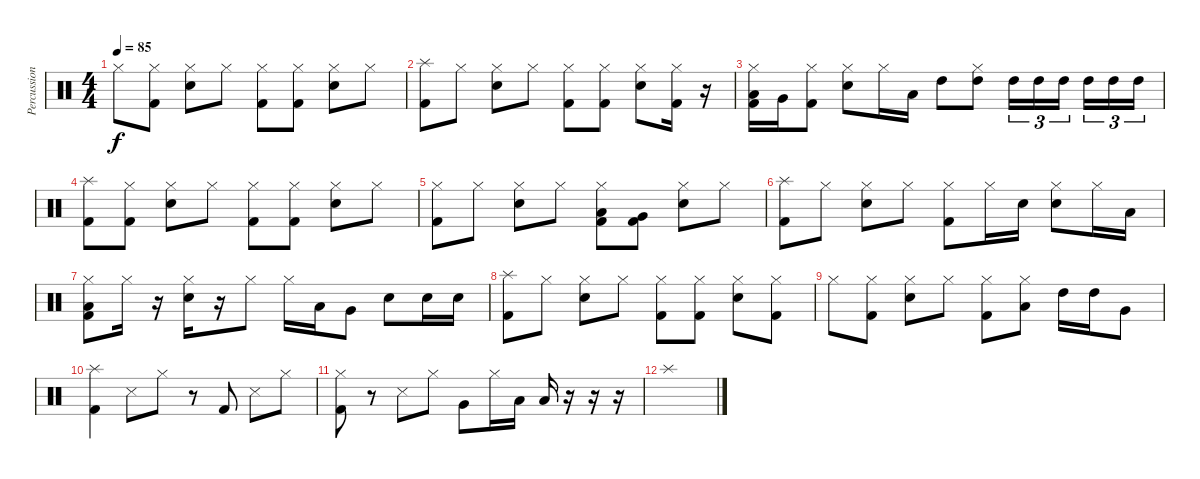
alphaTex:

\track ("Percussion" "Percussion") {instrument percussion}
\staff {score}
\articulation defaults
\ts (4 4)
\tempo 85
\clef neutral
\ks c "Hi-Hat (closed)".8{dy f}
("Hi-Hat (closed)" "Kick (hit) 2").8 ("Hi-Hat (closed)" "Electric Snare (hit)").8 "Hi-Hat (closed)".8 ("Hi-Hat (closed)" "Kick (hit) 2").8 ("Hi-Hat (closed)" "Kick (hit) 2").8 ("Hi-Hat (closed)" "Electric Snare (hit)").8 "Hi-Hat (closed)".8 |
("Splash (hit)" "Kick (hit) 2").8 "Hi-Hat (closed)".8 ("Hi-Hat (closed)" "Electric Snare (hit)").8 "Hi-Hat (closed)".8 ("Hi-Hat (closed)" "Kick (hit) 2").8 ("Hi-Hat (closed)" "Kick (hit) 2").8 ("Hi-Hat (closed)" "Electric Snare (hit)").8 ("Hi-Hat (closed)" "Kick (hit) 2").16 r.16 |
("Hi-Hat (closed)" "Low Tom (hit)" "Kick (hit) 2").16 "Very Low Tom (hit)".16 ("Hi-Hat (closed)" "Kick (hit) 2").8 ("Hi-Hat (closed)" "Electric Snare (hit)").8 "Hi-Hat (closed)".16 "Low Tom (hit)".16 "High Tom (hit)".8 ("Hi-Hat (closed)" "High Tom (hit)").8 "High Tom (hit)".16{tu (3 2)} "High Tom (hit)".16{tu (3 2)} "High Tom (hit)".16{tu (3 2) beam splitsecondary} "High Tom (hit)".16{tu (3 2)} "High Tom (hit)".16{tu (3 2)} "High Tom (hit)".16{tu (3 2)} |
("Splash (hit)" "Kick (hit) 2").8 ("Hi-Hat (closed)" "Kick (hit) 2").8 ("Hi-Hat (closed)" "Electric Snare (hit)").8 "Hi-Hat (closed)".8 ("Hi-Hat (closed)" "Kick (hit) 2").8 ("Hi-Hat (closed)" "Kick (hit) 2").8 ("Hi-Hat (closed)" "Electric Snare (hit)").8 "Hi-Hat (closed)".8 |
("Hi-Hat (closed)" "Kick (hit) 2").8 "Hi-Hat (closed)".8 ("Hi-Hat (closed)" "Electric Snare (hit)").8 "Hi-Hat (closed)".8 ("Hi-Hat (closed)" "Low Tom (hit)" "Kick (hit) 2").8 ("Very Low Tom (hit)" "Kick (hit) 2").8 ("Hi-Hat (closed)" "Electric Snare (hit)").8 "Hi-Hat (closed)".8 |
("Splash (hit)" "Kick (hit) 2").8 "Hi-Hat (closed)".8 ("Hi-Hat (closed)" "Electric Snare (hit)").8 "Hi-Hat (closed)".8 ("Hi-Hat (closed)" "Kick (hit) 2").8 "Hi-Hat (closed)".16 "Electric Snare (hit)".16 ("Hi-Hat (closed)" "Electric Snare (hit)").8 "Hi-Hat (closed)".16 "Low Tom (hit)".16 |
("Hi-Hat (closed)" "Low Floor Tom (hit)" "Kick (hit) 2").8 "Hi-Hat (closed)".16 r.16 ("Hi-Hat (closed)" "Electric Snare (hit)").16 r.16 "Hi-Hat (closed)".8 "Hi-Hat (closed)".16 "Low Tom (hit)".16 "Very Low Tom (hit)".8 "Electric Snare (hit)".8 "Electric Snare (hit)".16 "Electric Snare (hit)".16 |
("Splash (hit)" "Kick (hit) 2").8 "Hi-Hat (closed)".8 ("Hi-Hat (closed)" "Electric Snare (hit)").8 "Hi-Hat (closed)".8 ("Hi-Hat (closed)" "Kick (hit) 2").8 ("Hi-Hat (closed)" "Kick (hit) 2").8 ("Hi-Hat (closed)" "Electric Snare (hit)").8 ("Hi-Hat (closed)" "Kick (hit) 2").8 |
"Hi-Hat (closed)".8 ("Hi-Hat (closed)" "Kick (hit) 2").8 ("Hi-Hat (closed)" "Electric Snare (hit)").8 "Hi-Hat (closed)".8 ("Hi-Hat (closed)" "Kick (hit) 2").8 ("Hi-Hat (closed)" "Low Tom (hit)").8 "High Tom (hit)".16 "High Tom (hit)".16 "Very Low Tom (hit)".8 |
("Splash (hit)" "Kick (hit) 2").4 "Snare (side stick) 3".8 "Hi-Hat (closed)".8 r.8 "Kick (hit) 2".8 "Snare (side stick) 3".8 "Hi-Hat (closed)".8 |
("Hi-Hat (closed)" "Kick (hit) 2").8 r.8 "Snare (side stick) 3".8 "Hi-Hat (closed)".8 "Very Low Tom (hit)".8 "Hi-Hat (closed)".16 "Low Floor Tom (hit)".16 "Low Tom (hit)".16 r.16 r.16 r.16 |
"Splash (hit)".1
